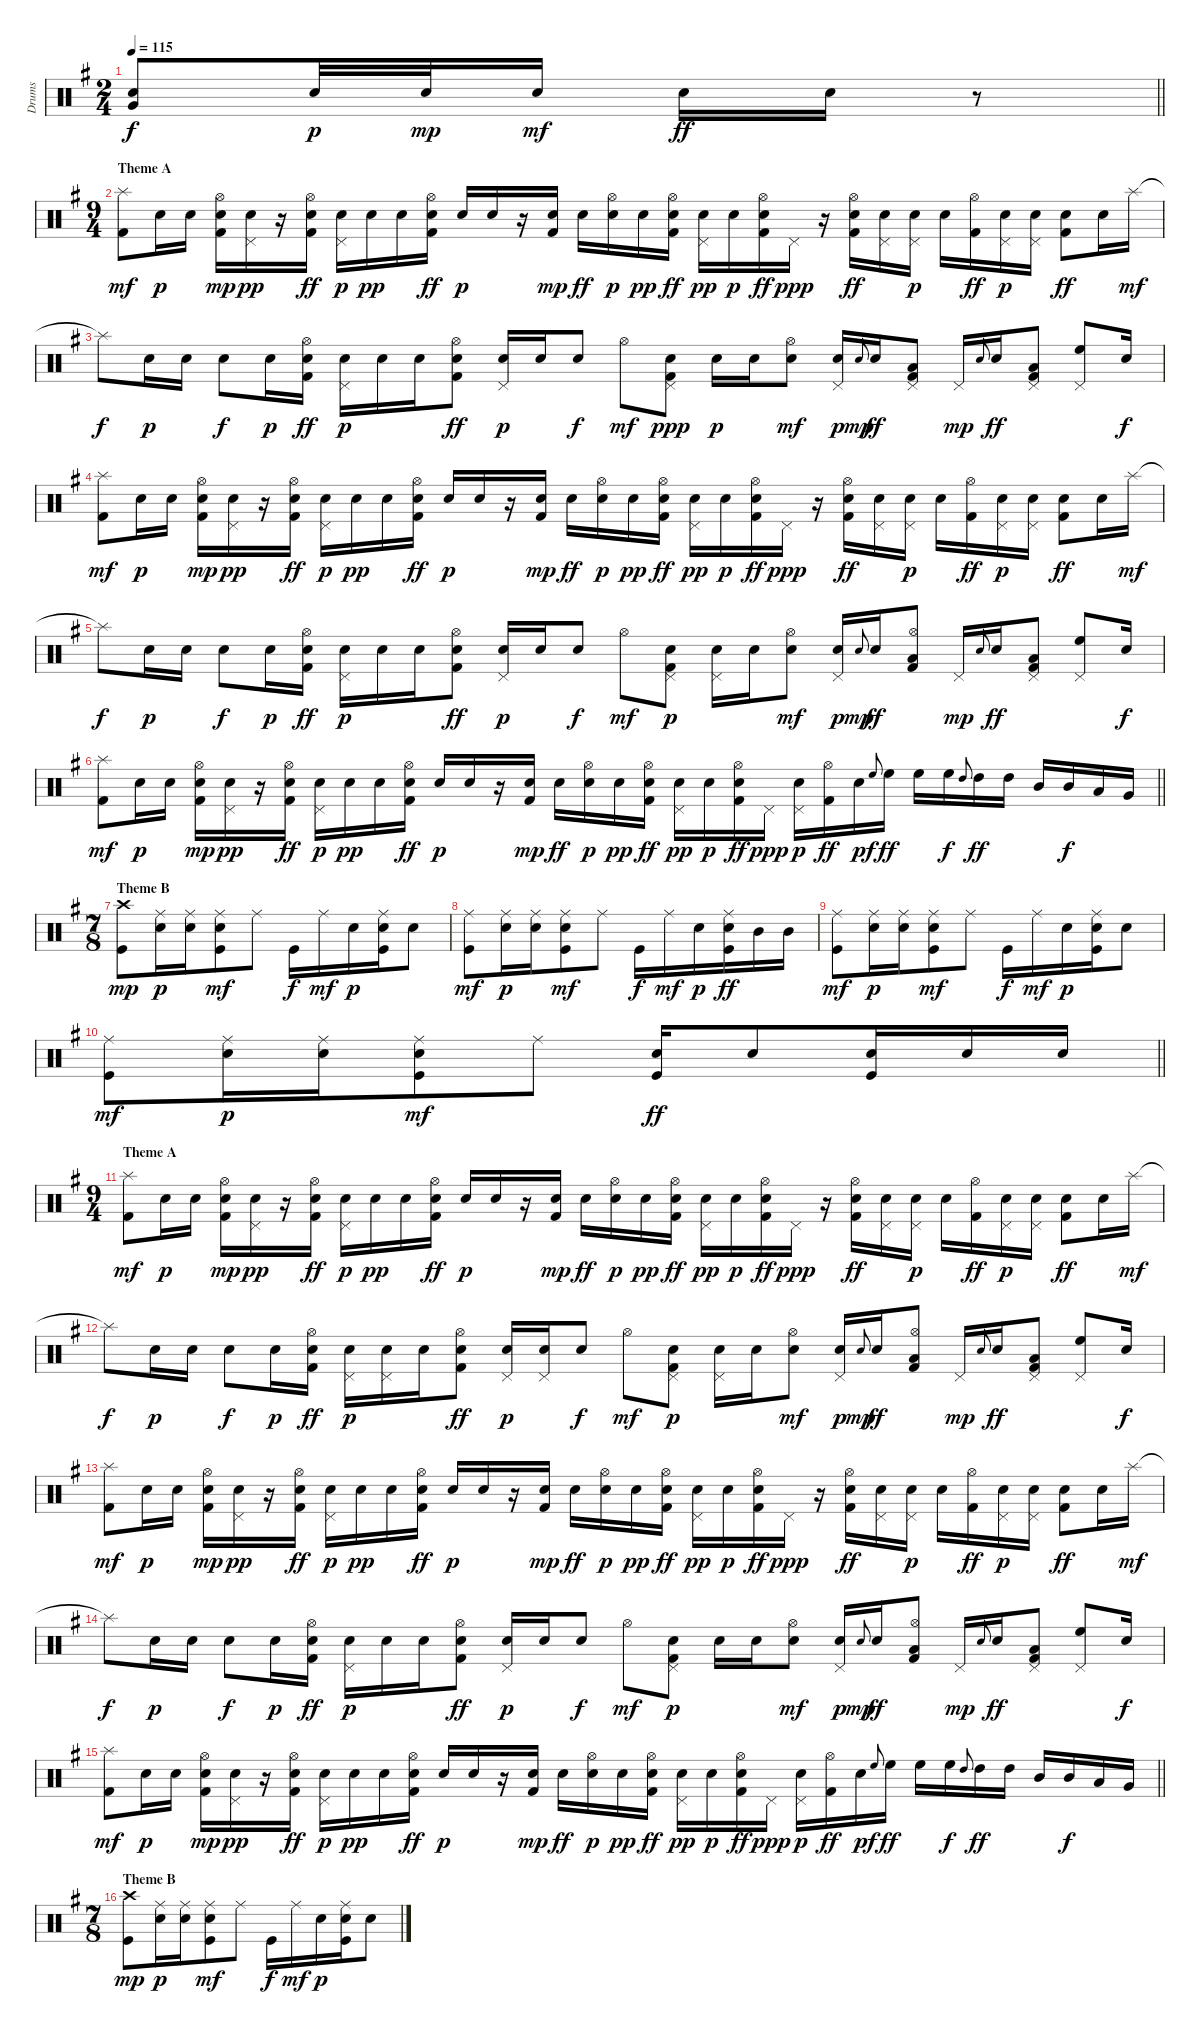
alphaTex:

\track ("Drums" "Drums") {instrument percussion}
\staff {score}
\articulation defaults
\ts (2 4)
\tempo 115
\clef neutral
\barLineRight lightlight
\ks g
("Electric Snare (hit)" "Very Low Tom (hit)").8{dy f} "Snare (hit) 2".32{dy p} "Snare (hit) 2".32{dy mp} "Snare (hit) 2".16{dy mf} "Electric Snare (hit)".16{dy ff} "Electric Snare (hit)".16 r.8 |
\ts (9 4)
\section ("" "Theme A")
("Splash (hit)" "Kick (hit) 2").8{dy mf} "Snare (hit) 2".16{dy p} "Snare (hit) 2".16 ("Hi-Hat (open)" "Electric Snare (hit)" "Kick (hit) 2").16{dy mp} ("Pedal Hi-Hat (hit)" "Snare (hit) 2").16{dy pp} r.16 ("Hi-Hat (open)" "Snare (hit) 2" "Kick (hit) 2").16{dy ff} ("Pedal Hi-Hat (hit)" "Snare (hit) 2").16{dy p} "Snare (hit) 2".16{dy pp} "Snare (hit) 2".16 ("Hi-Hat (open)" "Snare (hit) 2" "Kick (hit) 2").16{dy ff} "Snare (hit) 2".16{dy p} "Snare (hit) 2".16 r.16 ("Snare (hit) 2" "Kick (hit) 2").16{dy mp} "Electric Snare (hit)".16{dy ff} ("Hi-Hat (open)" "Snare (hit) 2").16{dy p} "Snare (hit) 2".16{dy pp} ("Hi-Hat (open)" "Electric Snare (hit)" "Kick (hit) 2").16{dy ff} ("Pedal Hi-Hat (hit)" "Snare (hit) 2").16{dy pp} "Snare (hit) 2".16{dy p} ("Hi-Hat (open)" "Electric Snare (hit)" "Kick (hit) 2").16{dy ff} "Pedal Hi-Hat (hit)".16{dy ppp} r.16 ("Hi-Hat (open)" "Electric Snare (hit)" "Kick (hit) 2").16{dy ff} ("Pedal Hi-Hat (hit)" "Electric Snare (hit)").16 ("Pedal Hi-Hat (hit)" "Snare (hit) 2").16{dy p} "Snare (hit) 2".16 ("Hi-Hat (open)" "Kick (hit) 2").16{dy ff} ("Pedal Hi-Hat (hit)" "Snare (hit) 2").16{dy p} ("Pedal Hi-Hat (hit)" "Snare (hit) 2").16 ("Snare (hit) 2" "Kick (hit) 2").8{dy ff} "Electric Snare (hit)".16 "Splash (hit)".16{dy mf} |
"Splash (hit)"{t}.8{dy f} "Snare (hit) 2".16{dy p} "Snare (hit) 2".16 "Electric Snare (hit)".8{dy f} "Snare (hit) 2".16{dy p} ("Hi-Hat (open)" "Snare (hit) 2" "Kick (hit) 2").16{dy ff} ("Pedal Hi-Hat (hit)" "Snare (hit) 2").16{dy p} "Snare (hit) 2".16 "Snare (hit) 2".16 ("Hi-Hat (open)" "Snare (hit) 2" "Kick (hit) 2").8{dy ff} ("Pedal Hi-Hat (hit)" "Snare (hit) 2").16{dy p} "Snare (hit) 2".16 "Electric Snare (hit)".8{dy f} "Hi-Hat (open)".8{dy mf} ("Pedal Hi-Hat (hit)" "Electric Snare (hit)" "Kick (hit) 2").8{dy ppp} "Snare (hit) 2".16{dy p} "Snare (hit) 2".16 ("Hi-Hat (open)" "Electric Snare (hit)").8{dy mf} ("Pedal Hi-Hat (hit)" "Snare (hit) 2").16{dy p} "Electric Snare (hit)".8{gr onbeat dy mp} "Electric Snare (hit)".16{dy ff} ("Pedal Hi-Hat (hit)" "Low Tom (hit)" "Kick (hit) 2").8 "Pedal Hi-Hat (hit)".16{dy mp} "Electric Snare (hit)".8{gr onbeat} "Electric Snare (hit)".16{dy ff} ("Pedal Hi-Hat (hit)" "Low Tom (hit)" "Kick (hit) 2").8 ("Pedal Hi-Hat (hit)" "High Floor Tom (hit)").8 "Electric Snare (hit)".16{dy f} |
("Splash (hit)" "Kick (hit) 2").8{dy mf} "Snare (hit) 2".16{dy p} "Snare (hit) 2".16 ("Hi-Hat (open)" "Electric Snare (hit)" "Kick (hit) 2").16{dy mp} ("Pedal Hi-Hat (hit)" "Snare (hit) 2").16{dy pp} r.16 ("Hi-Hat (open)" "Snare (hit) 2" "Kick (hit) 2").16{dy ff} ("Pedal Hi-Hat (hit)" "Snare (hit) 2").16{dy p} "Snare (hit) 2".16{dy pp} "Snare (hit) 2".16 ("Hi-Hat (open)" "Snare (hit) 2" "Kick (hit) 2").16{dy ff} "Snare (hit) 2".16{dy p} "Snare (hit) 2".16 r.16 ("Snare (hit) 2" "Kick (hit) 2").16{dy mp} "Electric Snare (hit)".16{dy ff} ("Hi-Hat (open)" "Snare (hit) 2").16{dy p} "Snare (hit) 2".16{dy pp} ("Hi-Hat (open)" "Electric Snare (hit)" "Kick (hit) 2").16{dy ff} ("Pedal Hi-Hat (hit)" "Snare (hit) 2").16{dy pp} "Snare (hit) 2".16{dy p} ("Hi-Hat (open)" "Electric Snare (hit)" "Kick (hit) 2").16{dy ff} "Pedal Hi-Hat (hit)".16{dy ppp} r.16 ("Hi-Hat (open)" "Electric Snare (hit)" "Kick (hit) 2").16{dy ff} ("Pedal Hi-Hat (hit)" "Electric Snare (hit)").16 ("Pedal Hi-Hat (hit)" "Snare (hit) 2").16{dy p} "Snare (hit) 2".16 ("Hi-Hat (open)" "Kick (hit) 2").16{dy ff} ("Pedal Hi-Hat (hit)" "Snare (hit) 2").16{dy p} ("Pedal Hi-Hat (hit)" "Snare (hit) 2").16 ("Snare (hit) 2" "Kick (hit) 2").8{dy ff} "Electric Snare (hit)".16 "Splash (hit)".16{dy mf} |
"Splash (hit)"{t}.8{dy f} "Snare (hit) 2".16{dy p} "Snare (hit) 2".16 "Electric Snare (hit)".8{dy f} "Snare (hit) 2".16{dy p} ("Hi-Hat (open)" "Snare (hit) 2" "Kick (hit) 2").16{dy ff} ("Pedal Hi-Hat (hit)" "Snare (hit) 2").16{dy p} "Snare (hit) 2".16 "Snare (hit) 2".16 ("Hi-Hat (open)" "Snare (hit) 2" "Kick (hit) 2").8{dy ff} ("Pedal Hi-Hat (hit)" "Snare (hit) 2").16{dy p} "Snare (hit) 2".16 "Electric Snare (hit)".8{dy f} "Hi-Hat (open)".8{dy mf} ("Pedal Hi-Hat (hit)" "Electric Snare (hit)" "Kick (hit) 2").8{dy p} ("Pedal Hi-Hat (hit)" "Snare (hit) 2").16 "Snare (hit) 2".16 ("Hi-Hat (open)" "Electric Snare (hit)").8{dy mf} ("Pedal Hi-Hat (hit)" "Snare (hit) 2").16{dy p} "Electric Snare (hit)".8{gr onbeat dy mp} "Electric Snare (hit)".16{dy ff} ("Hi-Hat (open)" "Low Tom (hit)" "Kick (hit) 2").8 "Pedal Hi-Hat (hit)".16{dy mp} "Electric Snare (hit)".8{gr onbeat} "Electric Snare (hit)".16{dy ff} ("Pedal Hi-Hat (hit)" "Low Tom (hit)" "Kick (hit) 2").8 ("Pedal Hi-Hat (hit)" "High Floor Tom (hit)").8 "Electric Snare (hit)".16{dy f} |
\barLineRight lightlight
("Splash (hit)" "Kick (hit) 2").8{dy mf} "Snare (hit) 2".16{dy p} "Snare (hit) 2".16 ("Hi-Hat (open)" "Electric Snare (hit)" "Kick (hit) 2").16{dy mp} ("Pedal Hi-Hat (hit)" "Snare (hit) 2").16{dy pp} r.16 ("Hi-Hat (open)" "Snare (hit) 2" "Kick (hit) 2").16{dy ff} ("Pedal Hi-Hat (hit)" "Snare (hit) 2").16{dy p} "Snare (hit) 2".16{dy pp} "Snare (hit) 2".16 ("Hi-Hat (open)" "Snare (hit) 2" "Kick (hit) 2").16{dy ff} "Snare (hit) 2".16{dy p} "Snare (hit) 2".16 r.16 ("Snare (hit) 2" "Kick (hit) 2").16{dy mp} "Electric Snare (hit)".16{dy ff} ("Hi-Hat (open)" "Snare (hit) 2").16{dy p} "Snare (hit) 2".16{dy pp} ("Hi-Hat (open)" "Electric Snare (hit)" "Kick (hit) 2").16{dy ff} ("Pedal Hi-Hat (hit)" "Snare (hit) 2").16{dy pp} "Snare (hit) 2".16{dy p} ("Hi-Hat (open)" "Electric Snare (hit)" "Kick (hit) 2").16{dy ff} "Pedal Hi-Hat (hit)".16{dy ppp} ("Pedal Hi-Hat (hit)" "Snare (hit) 2").16{dy p} ("Hi-Hat (open)" "Kick (hit) 2").16{dy ff} "Snare (hit) 2".16{dy p} "High Floor Tom (hit)".8{gr onbeat dy f} "High Floor Tom (hit)".16{dy ff} "High Floor Tom (hit)".16 "High Floor Tom (hit)".16{dy f} "High Tom (hit)".8{gr onbeat} "High Tom (hit)".16{dy ff} "High Tom (hit)".16 "Mid Tom (hit)".16 "Mid Tom (hit)".16{dy f} "Low Tom (hit)".16 "Very Low Tom (hit)".16 |
\ts (7 8)
\section ("" "Theme B")
("Crash high (hit)" "Kick (hit)").8{dy mp} ("Ride (middle)" "Snare (hit) 2").16{dy p} ("Ride (middle)" "Snare (hit) 2").16 ("Ride (middle)" "Snare (hit) 2" "Kick (hit)").8{dy mf} "Ride (middle)".8 "Kick (hit)".16{dy f} "Ride (middle)".16{dy mf} "Snare (hit) 2".16{dy p} ("Ride (middle)" "Snare (hit) 2" "Kick (hit)").16 "Snare (hit) 2".8 |
("Ride (middle)" "Kick (hit)").8{dy mf} ("Ride (middle)" "Snare (hit) 2").16{dy p} ("Ride (middle)" "Snare (hit) 2").16 ("Ride (middle)" "Snare (hit) 2" "Kick (hit)").8{dy mf} "Ride (middle)".8 "Kick (hit)".16{dy f} "Ride (middle)".16{dy mf} "Snare (hit) 2".16{dy p} ("Ride (middle)" "Snare (hit) 2" "Kick (hit)").16{dy ff} "Mid Tom (hit)".16 "Mid Tom (hit)".16 |
("Ride (middle)" "Kick (hit)").8{dy mf} ("Ride (middle)" "Snare (hit) 2").16{dy p} ("Ride (middle)" "Snare (hit) 2").16 ("Ride (middle)" "Snare (hit) 2" "Kick (hit)").8{dy mf} "Ride (middle)".8 "Kick (hit)".16{dy f} "Ride (middle)".16{dy mf} "Snare (hit) 2".16{dy p} ("Ride (middle)" "Snare (hit) 2" "Kick (hit)").16 "Snare (hit) 2".8 |
\barLineRight lightlight
("Ride (middle)" "Kick (hit)").8{dy mf} ("Ride (middle)" "Snare (hit) 2").16{dy p} ("Ride (middle)" "Snare (hit) 2").16 ("Ride (middle)" "Snare (hit) 2" "Kick (hit)").8{dy mf} "Ride (middle)".8 ("Electric Snare (hit)" "Kick (hit)").16{dy ff} "Electric Snare (hit)".8 ("Electric Snare (hit)" "Kick (hit)").16 "Electric Snare (hit)".16 "Electric Snare (hit)".16 |
\ts (9 4)
\section ("" "Theme A")
("Splash (hit)" "Kick (hit) 2").8{dy mf} "Snare (hit) 2".16{dy p} "Snare (hit) 2".16 ("Hi-Hat (open)" "Electric Snare (hit)" "Kick (hit) 2").16{dy mp} ("Pedal Hi-Hat (hit)" "Snare (hit) 2").16{dy pp} r.16 ("Hi-Hat (open)" "Snare (hit) 2" "Kick (hit) 2").16{dy ff} ("Pedal Hi-Hat (hit)" "Snare (hit) 2").16{dy p} "Snare (hit) 2".16{dy pp} "Snare (hit) 2".16 ("Hi-Hat (open)" "Snare (hit) 2" "Kick (hit) 2").16{dy ff} "Snare (hit) 2".16{dy p} "Snare (hit) 2".16 r.16 ("Snare (hit) 2" "Kick (hit) 2").16{dy mp} "Electric Snare (hit)".16{dy ff} ("Hi-Hat (open)" "Snare (hit) 2").16{dy p} "Snare (hit) 2".16{dy pp} ("Hi-Hat (open)" "Electric Snare (hit)" "Kick (hit) 2").16{dy ff} ("Pedal Hi-Hat (hit)" "Snare (hit) 2").16{dy pp} "Snare (hit) 2".16{dy p} ("Hi-Hat (open)" "Electric Snare (hit)" "Kick (hit) 2").16{dy ff} "Pedal Hi-Hat (hit)".16{dy ppp} r.16 ("Hi-Hat (open)" "Electric Snare (hit)" "Kick (hit) 2").16{dy ff} ("Pedal Hi-Hat (hit)" "Electric Snare (hit)").16 ("Pedal Hi-Hat (hit)" "Snare (hit) 2").16{dy p} "Snare (hit) 2".16 ("Hi-Hat (open)" "Kick (hit) 2").16{dy ff} ("Pedal Hi-Hat (hit)" "Snare (hit) 2").16{dy p} ("Pedal Hi-Hat (hit)" "Snare (hit) 2").16 ("Snare (hit) 2" "Kick (hit) 2").8{dy ff} "Electric Snare (hit)".16 "Splash (hit)".16{dy mf} |
"Splash (hit)"{t}.8{dy f} "Snare (hit) 2".16{dy p} "Snare (hit) 2".16 "Electric Snare (hit)".8{dy f} "Snare (hit) 2".16{dy p} ("Hi-Hat (open)" "Snare (hit) 2" "Kick (hit) 2").16{dy ff} ("Pedal Hi-Hat (hit)" "Snare (hit) 2").16{dy p} ("Pedal Hi-Hat (hit)" "Snare (hit) 2").16 "Snare (hit) 2".16 ("Hi-Hat (open)" "Snare (hit) 2" "Kick (hit) 2").8{dy ff} ("Pedal Hi-Hat (hit)" "Snare (hit) 2").16{dy p} ("Pedal Hi-Hat (hit)" "Snare (hit) 2").16 "Electric Snare (hit)".8{dy f} "Hi-Hat (open)".8{dy mf} ("Pedal Hi-Hat (hit)" "Electric Snare (hit)" "Kick (hit) 2").8{dy p} ("Pedal Hi-Hat (hit)" "Snare (hit) 2").16 "Snare (hit) 2".16 ("Hi-Hat (open)" "Electric Snare (hit)").8{dy mf} ("Pedal Hi-Hat (hit)" "Snare (hit) 2").16{dy p} "Electric Snare (hit)".8{gr onbeat dy mp} "Electric Snare (hit)".16{dy ff} ("Hi-Hat (open)" "Low Tom (hit)" "Kick (hit) 2").8 "Pedal Hi-Hat (hit)".16{dy mp} "Electric Snare (hit)".8{gr onbeat} "Electric Snare (hit)".16{dy ff} ("Pedal Hi-Hat (hit)" "Low Tom (hit)" "Kick (hit) 2").8 ("Pedal Hi-Hat (hit)" "High Floor Tom (hit)").8 "Electric Snare (hit)".16{dy f} |
("Splash (hit)" "Kick (hit) 2").8{dy mf} "Snare (hit) 2".16{dy p} "Snare (hit) 2".16 ("Hi-Hat (open)" "Electric Snare (hit)" "Kick (hit) 2").16{dy mp} ("Pedal Hi-Hat (hit)" "Snare (hit) 2").16{dy pp} r.16 ("Hi-Hat (open)" "Snare (hit) 2" "Kick (hit) 2").16{dy ff} ("Pedal Hi-Hat (hit)" "Snare (hit) 2").16{dy p} "Snare (hit) 2".16{dy pp} "Snare (hit) 2".16 ("Hi-Hat (open)" "Snare (hit) 2" "Kick (hit) 2").16{dy ff} "Snare (hit) 2".16{dy p} "Snare (hit) 2".16 r.16 ("Snare (hit) 2" "Kick (hit) 2").16{dy mp} "Electric Snare (hit)".16{dy ff} ("Hi-Hat (open)" "Snare (hit) 2").16{dy p} "Snare (hit) 2".16{dy pp} ("Hi-Hat (open)" "Electric Snare (hit)" "Kick (hit) 2").16{dy ff} ("Pedal Hi-Hat (hit)" "Snare (hit) 2").16{dy pp} "Snare (hit) 2".16{dy p} ("Hi-Hat (open)" "Electric Snare (hit)" "Kick (hit) 2").16{dy ff} "Pedal Hi-Hat (hit)".16{dy ppp} r.16 ("Hi-Hat (open)" "Electric Snare (hit)" "Kick (hit) 2").16{dy ff} ("Pedal Hi-Hat (hit)" "Electric Snare (hit)").16 ("Pedal Hi-Hat (hit)" "Snare (hit) 2").16{dy p} "Snare (hit) 2".16 ("Hi-Hat (open)" "Kick (hit) 2").16{dy ff} ("Pedal Hi-Hat (hit)" "Snare (hit) 2").16{dy p} ("Pedal Hi-Hat (hit)" "Snare (hit) 2").16 ("Snare (hit) 2" "Kick (hit) 2").8{dy ff} "Electric Snare (hit)".16 "Splash (hit)".16{dy mf} |
"Splash (hit)"{t}.8{dy f} "Snare (hit) 2".16{dy p} "Snare (hit) 2".16 "Electric Snare (hit)".8{dy f} "Snare (hit) 2".16{dy p} ("Hi-Hat (open)" "Snare (hit) 2" "Kick (hit) 2").16{dy ff} ("Pedal Hi-Hat (hit)" "Snare (hit) 2").16{dy p} "Snare (hit) 2".16 "Snare (hit) 2".16 ("Hi-Hat (open)" "Snare (hit) 2" "Kick (hit) 2").8{dy ff} ("Pedal Hi-Hat (hit)" "Snare (hit) 2").16{dy p} "Snare (hit) 2".16 "Electric Snare (hit)".8{dy f} "Hi-Hat (open)".8{dy mf} ("Pedal Hi-Hat (hit)" "Electric Snare (hit)" "Kick (hit) 2").8{dy p} "Snare (hit) 2".16 "Snare (hit) 2".16 ("Hi-Hat (open)" "Electric Snare (hit)").8{dy mf} ("Pedal Hi-Hat (hit)" "Snare (hit) 2").16{dy p} "Electric Snare (hit)".8{gr onbeat dy mp} "Electric Snare (hit)".16{dy ff} ("Hi-Hat (open)" "Low Tom (hit)" "Kick (hit) 2").8 "Pedal Hi-Hat (hit)".16{dy mp} "Electric Snare (hit)".8{gr onbeat} "Electric Snare (hit)".16{dy ff} ("Pedal Hi-Hat (hit)" "Low Tom (hit)" "Kick (hit) 2").8 ("Pedal Hi-Hat (hit)" "High Floor Tom (hit)").8 "Electric Snare (hit)".16{dy f} |
\barLineRight lightlight
("Splash (hit)" "Kick (hit) 2").8{dy mf} "Snare (hit) 2".16{dy p} "Snare (hit) 2".16 ("Hi-Hat (open)" "Electric Snare (hit)" "Kick (hit) 2").16{dy mp} ("Pedal Hi-Hat (hit)" "Snare (hit) 2").16{dy pp} r.16 ("Hi-Hat (open)" "Snare (hit) 2" "Kick (hit) 2").16{dy ff} ("Pedal Hi-Hat (hit)" "Snare (hit) 2").16{dy p} "Snare (hit) 2".16{dy pp} "Snare (hit) 2".16 ("Hi-Hat (open)" "Snare (hit) 2" "Kick (hit) 2").16{dy ff} "Snare (hit) 2".16{dy p} "Snare (hit) 2".16 r.16 ("Snare (hit) 2" "Kick (hit) 2").16{dy mp} "Electric Snare (hit)".16{dy ff} ("Hi-Hat (open)" "Snare (hit) 2").16{dy p} "Snare (hit) 2".16{dy pp} ("Hi-Hat (open)" "Electric Snare (hit)" "Kick (hit) 2").16{dy ff} ("Pedal Hi-Hat (hit)" "Snare (hit) 2").16{dy pp} "Snare (hit) 2".16{dy p} ("Hi-Hat (open)" "Electric Snare (hit)" "Kick (hit) 2").16{dy ff} "Pedal Hi-Hat (hit)".16{dy ppp} ("Pedal Hi-Hat (hit)" "Snare (hit) 2").16{dy p} ("Hi-Hat (open)" "Kick (hit) 2").16{dy ff} "Snare (hit) 2".16{dy p} "High Floor Tom (hit)".8{gr onbeat dy f} "High Floor Tom (hit)".16{dy ff} "High Floor Tom (hit)".16 "High Floor Tom (hit)".16{dy f} "High Tom (hit)".8{gr onbeat} "High Tom (hit)".16{dy ff} "High Tom (hit)".16 "Mid Tom (hit)".16 "Mid Tom (hit)".16{dy f} "Low Tom (hit)".16 "Very Low Tom (hit)".16 |
\ts (7 8)
\section ("" "Theme B")
("Crash high (hit)" "Kick (hit)").8{dy mp} ("Ride (middle)" "Snare (hit) 2").16{dy p} ("Ride (middle)" "Snare (hit) 2").16 ("Ride (middle)" "Snare (hit) 2" "Kick (hit)").8{dy mf} "Ride (middle)".8 "Kick (hit)".16{dy f} "Ride (middle)".16{dy mf} "Snare (hit) 2".16{dy p} ("Ride (middle)" "Snare (hit) 2" "Kick (hit)").16 "Snare (hit) 2".8
